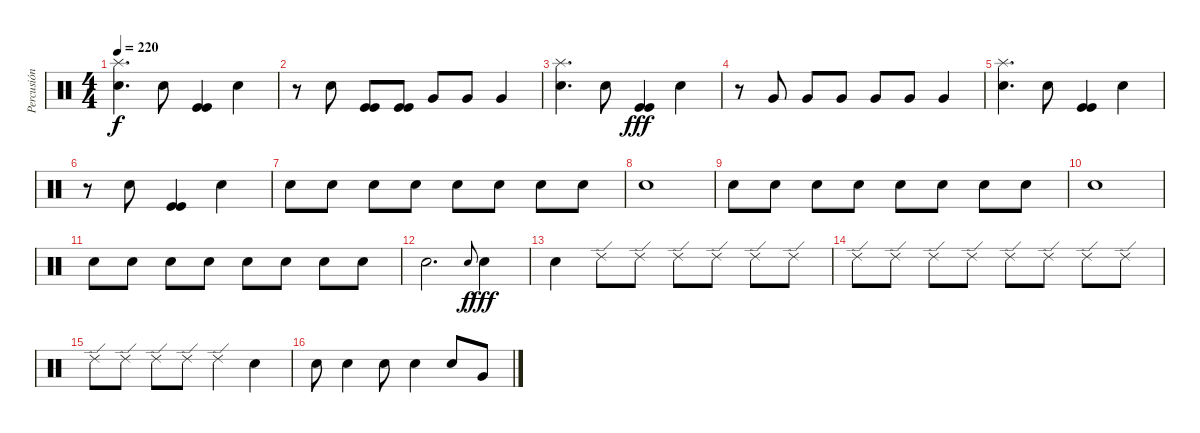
\track ("Percusión" "Percusión") {instrument percussion}
\staff {score}
\articulation defaults
\ts (4 4)
\tempo 220
\clef neutral
\ks c
("Splash (hit)" "Snare (hit) 2").4{d dy f} "Snare (hit) 2".8 ("Kick (hit)" "Kick (hit)").4 "Snare (hit) 2".4 |
r.8 "Snare (hit) 2".8 ("Kick (hit)" "Kick (hit)").8 ("Kick (hit)" "Kick (hit)").8 "Very Low Tom (hit)".8 "Very Low Tom (hit)".8 "Very Low Tom (hit)".4 |
("Splash (hit)" "Snare (hit) 2").4{d} "Snare (hit) 2".8 ("Kick (hit)" "Kick (hit)").4{dy fff} "Snare (hit) 2".4 |
r.8 "Very Low Tom (hit)".8 "Very Low Tom (hit)".8 "Very Low Tom (hit)".8 "Very Low Tom (hit)".8 "Very Low Tom (hit)".8 "Very Low Tom (hit)".4 |
("Splash (hit)" "Snare (hit) 2").4{d} "Snare (hit) 2".8 ("Kick (hit)" "Kick (hit)").4 "Snare (hit) 2".4 |
r.8 "Snare (hit) 2".8 ("Kick (hit)" "Kick (hit)").4 "Snare (hit) 2".4 |
"Snare (hit) 2".8 "Snare (hit) 2".8 "Snare (hit) 2".8 "Snare (hit) 2".8 "Snare (hit) 2".8 "Snare (hit) 2".8 "Snare (hit) 2".8 "Snare (hit) 2".8 |
"Snare (hit) 2".1 |
"Snare (hit) 2".8 "Snare (hit) 2".8 "Snare (hit) 2".8 "Snare (hit) 2".8 "Snare (hit) 2".8 "Snare (hit) 2".8 "Snare (hit) 2".8 "Snare (hit) 2".8 |
"Snare (hit) 2".1 |
"Snare (hit) 2".8 "Snare (hit) 2".8 "Snare (hit) 2".8 "Snare (hit) 2".8 "Snare (hit) 2".8 "Snare (hit) 2".8 "Snare (hit) 2".8 "Snare (hit) 2".8 |
"Snare (hit) 2".2{d} "Snare (hit) 2".8{gr onbeat dy f} "Snare (hit) 2".4{dy fff} |
"Snare (hit) 2".4 "Ride (edge) 2".8 "Ride (edge) 2".8 "Ride (edge) 2".8 "Ride (edge) 2".8 "Ride (edge) 2".8 "Ride (edge) 2".8 |
"Ride (edge) 2".8 "Ride (edge) 2".8 "Ride (edge) 2".8 "Ride (edge) 2".8 "Ride (edge) 2".8 "Ride (edge) 2".8 "Ride (edge) 2".8 "Ride (edge) 2".8 |
"Ride (edge) 2".8 "Ride (edge) 2".8 "Ride (edge) 2".8 "Ride (edge) 2".8 "Ride (edge) 2".4 "Snare (hit) 2".4 |
"Snare (hit) 2".8 "Snare (hit) 2".4 "Snare (hit) 2".8 "Snare (hit) 2".4 "Snare (hit) 2".8 "Very Low Tom (hit)".8
